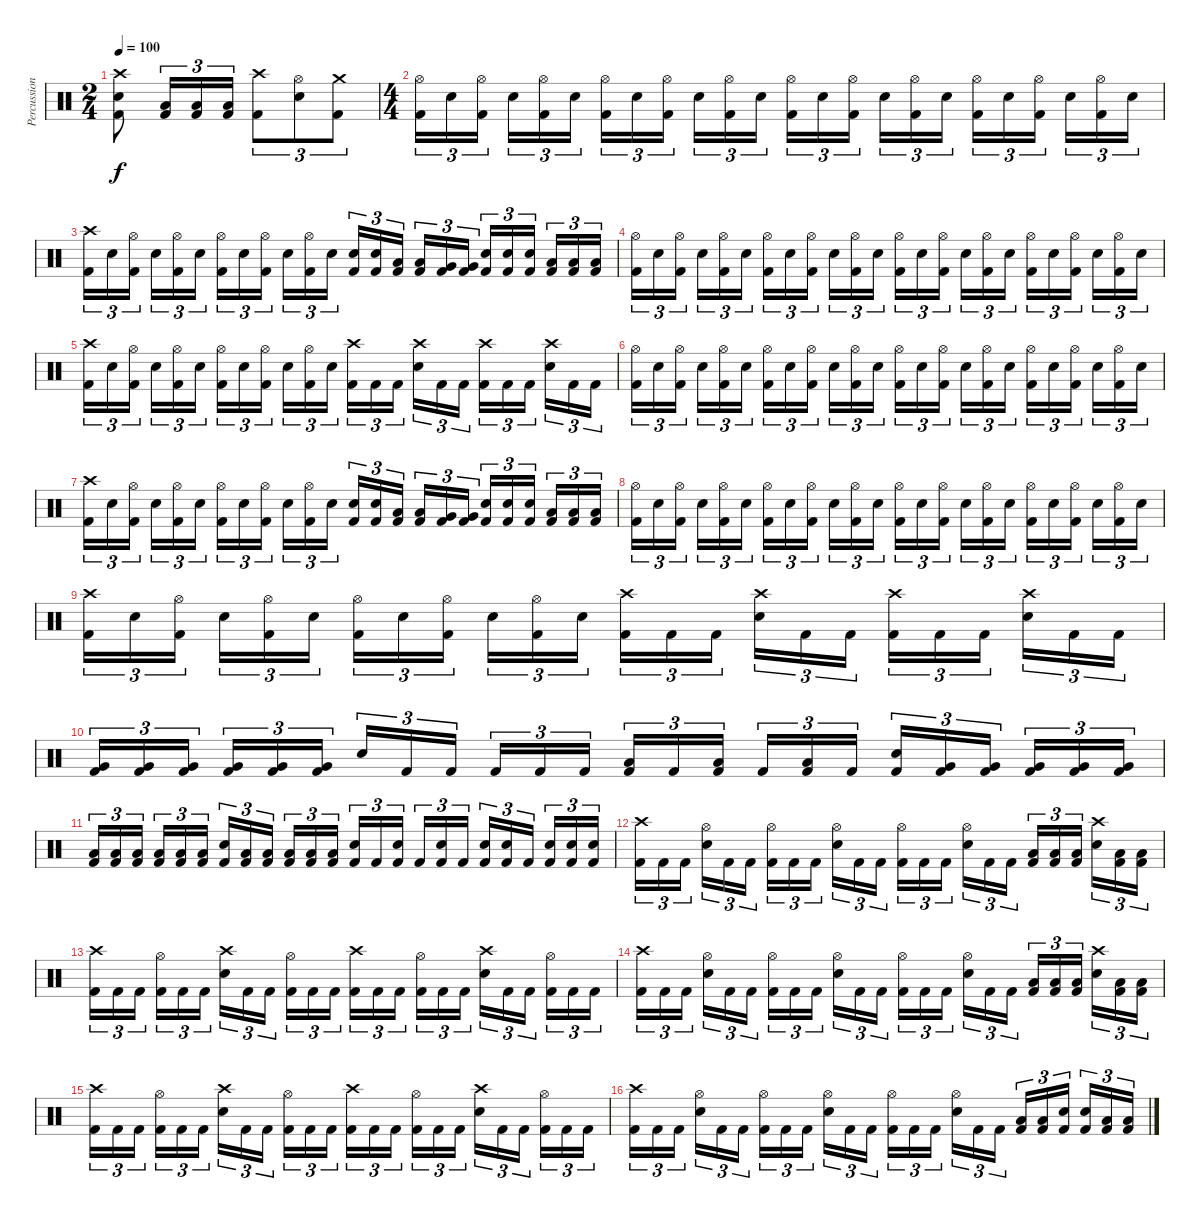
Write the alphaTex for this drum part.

\track ("Percussion" "Percussion") {instrument percussion}
\staff {score}
\articulation defaults
\ts (2 4)
\tempo 100
\clef neutral
\ks c
("Crash high (hit)" "Electric Snare (hit)" "Kick (hit) 2").8{dy f} ("Low Tom (hit)" "Kick (hit) 2").16{tu (3 2)} ("Low Tom (hit)" "Kick (hit) 2").16{tu (3 2)} ("Low Tom (hit)" "Kick (hit) 2").16{tu (3 2)} ("Crash high (hit)" "Kick (hit) 2").8{tu (3 2)} ("Hi-Hat (open)" "Electric Snare (hit)").8{tu (3 2)} ("Crash medium (hit)" "Kick (hit) 2").8{tu (3 2)} |
\ts (4 4)
("Hi-Hat (open)" "Kick (hit) 2").16{tu (3 2)} "Electric Snare (hit)".16{tu (3 2)} ("Hi-Hat (open)" "Kick (hit) 2").16{tu (3 2)} "Electric Snare (hit)".16{tu (3 2)} ("Hi-Hat (open)" "Kick (hit) 2").16{tu (3 2)} "Electric Snare (hit)".16{tu (3 2)} ("Hi-Hat (open)" "Kick (hit) 2").16{tu (3 2)} "Electric Snare (hit)".16{tu (3 2)} ("Hi-Hat (open)" "Kick (hit) 2").16{tu (3 2)} "Electric Snare (hit)".16{tu (3 2)} ("Hi-Hat (open)" "Kick (hit) 2").16{tu (3 2)} "Electric Snare (hit)".16{tu (3 2)} ("Hi-Hat (open)" "Kick (hit) 2").16{tu (3 2)} "Electric Snare (hit)".16{tu (3 2)} ("Hi-Hat (open)" "Kick (hit) 2").16{tu (3 2)} "Electric Snare (hit)".16{tu (3 2)} ("Hi-Hat (open)" "Kick (hit) 2").16{tu (3 2)} "Electric Snare (hit)".16{tu (3 2)} ("Hi-Hat (open)" "Kick (hit) 2").16{tu (3 2)} "Electric Snare (hit)".16{tu (3 2)} ("Hi-Hat (open)" "Kick (hit) 2").16{tu (3 2)} "Electric Snare (hit)".16{tu (3 2)} ("Hi-Hat (open)" "Kick (hit) 2").16{tu (3 2)} "Electric Snare (hit)".16{tu (3 2)} |
("Crash high (hit)" "Kick (hit) 2").16{tu (3 2)} "Electric Snare (hit)".16{tu (3 2)} ("Hi-Hat (open)" "Kick (hit) 2").16{tu (3 2)} "Electric Snare (hit)".16{tu (3 2)} ("Hi-Hat (open)" "Kick (hit) 2").16{tu (3 2)} "Electric Snare (hit)".16{tu (3 2)} ("Hi-Hat (open)" "Kick (hit) 2").16{tu (3 2)} "Electric Snare (hit)".16{tu (3 2)} ("Hi-Hat (open)" "Kick (hit) 2").16{tu (3 2)} "Electric Snare (hit)".16{tu (3 2)} ("Hi-Hat (open)" "Kick (hit) 2").16{tu (3 2)} "Electric Snare (hit)".16{tu (3 2)} ("Electric Snare (hit)" "Kick (hit) 2").16{tu (3 2)} ("Electric Snare (hit)" "Kick (hit) 2").16{tu (3 2)} ("Low Tom (hit)" "Kick (hit) 2").16{tu (3 2)} ("Low Tom (hit)" "Kick (hit) 2").16{tu (3 2)} ("Very Low Tom (hit)" "Kick (hit) 2").16{tu (3 2)} ("Very Low Tom (hit)" "Kick (hit) 2").16{tu (3 2)} ("Electric Snare (hit)" "Kick (hit) 2").16{tu (3 2)} ("Electric Snare (hit)" "Kick (hit) 2").16{tu (3 2)} ("Electric Snare (hit)" "Kick (hit) 2").16{tu (3 2)} ("Low Tom (hit)" "Kick (hit) 2").16{tu (3 2)} ("Low Tom (hit)" "Kick (hit) 2").16{tu (3 2)} ("Low Tom (hit)" "Kick (hit) 2").16{tu (3 2)} |
("Hi-Hat (open)" "Kick (hit) 2").16{tu (3 2)} "Electric Snare (hit)".16{tu (3 2)} ("Hi-Hat (open)" "Kick (hit) 2").16{tu (3 2)} "Electric Snare (hit)".16{tu (3 2)} ("Hi-Hat (open)" "Kick (hit) 2").16{tu (3 2)} "Electric Snare (hit)".16{tu (3 2)} ("Hi-Hat (open)" "Kick (hit) 2").16{tu (3 2)} "Electric Snare (hit)".16{tu (3 2)} ("Hi-Hat (open)" "Kick (hit) 2").16{tu (3 2)} "Electric Snare (hit)".16{tu (3 2)} ("Hi-Hat (open)" "Kick (hit) 2").16{tu (3 2)} "Electric Snare (hit)".16{tu (3 2)} ("Hi-Hat (open)" "Kick (hit) 2").16{tu (3 2)} "Electric Snare (hit)".16{tu (3 2)} ("Hi-Hat (open)" "Kick (hit) 2").16{tu (3 2)} "Electric Snare (hit)".16{tu (3 2)} ("Hi-Hat (open)" "Kick (hit) 2").16{tu (3 2)} "Electric Snare (hit)".16{tu (3 2)} ("Hi-Hat (open)" "Kick (hit) 2").16{tu (3 2)} "Electric Snare (hit)".16{tu (3 2)} ("Hi-Hat (open)" "Kick (hit) 2").16{tu (3 2)} "Electric Snare (hit)".16{tu (3 2)} ("Hi-Hat (open)" "Kick (hit) 2").16{tu (3 2)} "Electric Snare (hit)".16{tu (3 2)} |
("Crash high (hit)" "Kick (hit) 2").16{tu (3 2)} "Electric Snare (hit)".16{tu (3 2)} ("Hi-Hat (open)" "Kick (hit) 2").16{tu (3 2)} "Electric Snare (hit)".16{tu (3 2)} ("Hi-Hat (open)" "Kick (hit) 2").16{tu (3 2)} "Electric Snare (hit)".16{tu (3 2)} ("Hi-Hat (open)" "Kick (hit) 2").16{tu (3 2)} "Electric Snare (hit)".16{tu (3 2)} ("Hi-Hat (open)" "Kick (hit) 2").16{tu (3 2)} "Electric Snare (hit)".16{tu (3 2)} ("Hi-Hat (open)" "Kick (hit) 2").16{tu (3 2)} "Electric Snare (hit)".16{tu (3 2)} ("Crash high (hit)" "Kick (hit) 2").16{tu (3 2)} "Kick (hit) 2".16{tu (3 2)} "Kick (hit) 2".16{tu (3 2)} ("Crash high (hit)" "Electric Snare (hit)").16{tu (3 2)} "Kick (hit) 2".16{tu (3 2)} "Kick (hit) 2".16{tu (3 2)} ("Crash high (hit)" "Kick (hit) 2").16{tu (3 2)} "Kick (hit) 2".16{tu (3 2)} "Kick (hit) 2".16{tu (3 2)} ("Crash high (hit)" "Electric Snare (hit)").16{tu (3 2)} "Kick (hit) 2".16{tu (3 2)} "Kick (hit) 2".16{tu (3 2)} |
("Hi-Hat (open)" "Kick (hit) 2").16{tu (3 2)} "Electric Snare (hit)".16{tu (3 2)} ("Hi-Hat (open)" "Kick (hit) 2").16{tu (3 2)} "Electric Snare (hit)".16{tu (3 2)} ("Hi-Hat (open)" "Kick (hit) 2").16{tu (3 2)} "Electric Snare (hit)".16{tu (3 2)} ("Hi-Hat (open)" "Kick (hit) 2").16{tu (3 2)} "Electric Snare (hit)".16{tu (3 2)} ("Hi-Hat (open)" "Kick (hit) 2").16{tu (3 2)} "Electric Snare (hit)".16{tu (3 2)} ("Hi-Hat (open)" "Kick (hit) 2").16{tu (3 2)} "Electric Snare (hit)".16{tu (3 2)} ("Hi-Hat (open)" "Kick (hit) 2").16{tu (3 2)} "Electric Snare (hit)".16{tu (3 2)} ("Hi-Hat (open)" "Kick (hit) 2").16{tu (3 2)} "Electric Snare (hit)".16{tu (3 2)} ("Hi-Hat (open)" "Kick (hit) 2").16{tu (3 2)} "Electric Snare (hit)".16{tu (3 2)} ("Hi-Hat (open)" "Kick (hit) 2").16{tu (3 2)} "Electric Snare (hit)".16{tu (3 2)} ("Hi-Hat (open)" "Kick (hit) 2").16{tu (3 2)} "Electric Snare (hit)".16{tu (3 2)} ("Hi-Hat (open)" "Kick (hit) 2").16{tu (3 2)} "Electric Snare (hit)".16{tu (3 2)} |
("Crash high (hit)" "Kick (hit) 2").16{tu (3 2)} "Electric Snare (hit)".16{tu (3 2)} ("Hi-Hat (open)" "Kick (hit) 2").16{tu (3 2)} "Electric Snare (hit)".16{tu (3 2)} ("Hi-Hat (open)" "Kick (hit) 2").16{tu (3 2)} "Electric Snare (hit)".16{tu (3 2)} ("Hi-Hat (open)" "Kick (hit) 2").16{tu (3 2)} "Electric Snare (hit)".16{tu (3 2)} ("Hi-Hat (open)" "Kick (hit) 2").16{tu (3 2)} "Electric Snare (hit)".16{tu (3 2)} ("Hi-Hat (open)" "Kick (hit) 2").16{tu (3 2)} "Electric Snare (hit)".16{tu (3 2)} ("Electric Snare (hit)" "Kick (hit) 2").16{tu (3 2)} ("Electric Snare (hit)" "Kick (hit) 2").16{tu (3 2)} ("Low Tom (hit)" "Kick (hit) 2").16{tu (3 2)} ("Low Tom (hit)" "Kick (hit) 2").16{tu (3 2)} ("Very Low Tom (hit)" "Kick (hit) 2").16{tu (3 2)} ("Very Low Tom (hit)" "Kick (hit) 2").16{tu (3 2)} ("Electric Snare (hit)" "Kick (hit) 2").16{tu (3 2)} ("Electric Snare (hit)" "Kick (hit) 2").16{tu (3 2)} ("Electric Snare (hit)" "Kick (hit) 2").16{tu (3 2)} ("Low Tom (hit)" "Kick (hit) 2").16{tu (3 2)} ("Low Tom (hit)" "Kick (hit) 2").16{tu (3 2)} ("Low Tom (hit)" "Kick (hit) 2").16{tu (3 2)} |
("Hi-Hat (open)" "Kick (hit) 2").16{tu (3 2)} "Electric Snare (hit)".16{tu (3 2)} ("Hi-Hat (open)" "Kick (hit) 2").16{tu (3 2)} "Electric Snare (hit)".16{tu (3 2)} ("Hi-Hat (open)" "Kick (hit) 2").16{tu (3 2)} "Electric Snare (hit)".16{tu (3 2)} ("Hi-Hat (open)" "Kick (hit) 2").16{tu (3 2)} "Electric Snare (hit)".16{tu (3 2)} ("Hi-Hat (open)" "Kick (hit) 2").16{tu (3 2)} "Electric Snare (hit)".16{tu (3 2)} ("Hi-Hat (open)" "Kick (hit) 2").16{tu (3 2)} "Electric Snare (hit)".16{tu (3 2)} ("Hi-Hat (open)" "Kick (hit) 2").16{tu (3 2)} "Electric Snare (hit)".16{tu (3 2)} ("Hi-Hat (open)" "Kick (hit) 2").16{tu (3 2)} "Electric Snare (hit)".16{tu (3 2)} ("Hi-Hat (open)" "Kick (hit) 2").16{tu (3 2)} "Electric Snare (hit)".16{tu (3 2)} ("Hi-Hat (open)" "Kick (hit) 2").16{tu (3 2)} "Electric Snare (hit)".16{tu (3 2)} ("Hi-Hat (open)" "Kick (hit) 2").16{tu (3 2)} "Electric Snare (hit)".16{tu (3 2)} ("Hi-Hat (open)" "Kick (hit) 2").16{tu (3 2)} "Electric Snare (hit)".16{tu (3 2)} |
("Crash high (hit)" "Kick (hit) 2").16{tu (3 2)} "Electric Snare (hit)".16{tu (3 2)} ("Hi-Hat (open)" "Kick (hit) 2").16{tu (3 2)} "Electric Snare (hit)".16{tu (3 2)} ("Hi-Hat (open)" "Kick (hit) 2").16{tu (3 2)} "Electric Snare (hit)".16{tu (3 2)} ("Hi-Hat (open)" "Kick (hit) 2").16{tu (3 2)} "Electric Snare (hit)".16{tu (3 2)} ("Hi-Hat (open)" "Kick (hit) 2").16{tu (3 2)} "Electric Snare (hit)".16{tu (3 2)} ("Hi-Hat (open)" "Kick (hit) 2").16{tu (3 2)} "Electric Snare (hit)".16{tu (3 2)} ("Crash high (hit)" "Kick (hit) 2").16{tu (3 2)} "Kick (hit) 2".16{tu (3 2)} "Kick (hit) 2".16{tu (3 2)} ("Crash high (hit)" "Electric Snare (hit)").16{tu (3 2)} "Kick (hit) 2".16{tu (3 2)} "Kick (hit) 2".16{tu (3 2)} ("Crash high (hit)" "Kick (hit) 2").16{tu (3 2)} "Kick (hit) 2".16{tu (3 2)} "Kick (hit) 2".16{tu (3 2)} ("Crash high (hit)" "Electric Snare (hit)").16{tu (3 2)} "Kick (hit) 2".16{tu (3 2)} "Kick (hit) 2".16{tu (3 2)} |
("Very Low Tom (hit)" "Kick (hit) 2").16{tu (3 2)} ("Very Low Tom (hit)" "Kick (hit) 2").16{tu (3 2)} ("Very Low Tom (hit)" "Kick (hit) 2").16{tu (3 2)} ("Very Low Tom (hit)" "Kick (hit) 2").16{tu (3 2)} ("Very Low Tom (hit)" "Kick (hit) 2").16{tu (3 2)} ("Very Low Tom (hit)" "Kick (hit) 2").16{tu (3 2)} "Electric Snare (hit)".16{tu (3 2)} "Kick (hit) 2".16{tu (3 2)} "Kick (hit) 2".16{tu (3 2)} "Kick (hit) 2".16{tu (3 2)} "Kick (hit) 2".16{tu (3 2)} "Kick (hit) 2".16{tu (3 2)} ("Low Tom (hit)" "Kick (hit) 2").16{tu (3 2)} "Kick (hit) 2".16{tu (3 2)} ("Low Tom (hit)" "Kick (hit) 2").16{tu (3 2)} "Kick (hit) 2".16{tu (3 2)} ("Low Tom (hit)" "Kick (hit) 2").16{tu (3 2)} "Kick (hit) 2".16{tu (3 2)} ("Electric Snare (hit)" "Kick (hit) 2").16{tu (3 2)} ("Very Low Tom (hit)" "Kick (hit) 2").16{tu (3 2)} ("Very Low Tom (hit)" "Kick (hit) 2").16{tu (3 2)} ("Very Low Tom (hit)" "Kick (hit) 2").16{tu (3 2)} ("Very Low Tom (hit)" "Kick (hit) 2").16{tu (3 2)} ("Very Low Tom (hit)" "Kick (hit) 2").16{tu (3 2)} |
("Low Tom (hit)" "Kick (hit) 2").16{tu (3 2)} ("Low Tom (hit)" "Kick (hit) 2").16{tu (3 2)} ("Low Tom (hit)" "Kick (hit) 2").16{tu (3 2)} ("Low Tom (hit)" "Kick (hit) 2").16{tu (3 2)} ("Low Tom (hit)" "Kick (hit) 2").16{tu (3 2)} ("Low Tom (hit)" "Kick (hit) 2").16{tu (3 2)} ("Electric Snare (hit)" "Kick (hit) 2").16{tu (3 2)} ("Low Tom (hit)" "Kick (hit) 2").16{tu (3 2)} ("Low Tom (hit)" "Kick (hit) 2").16{tu (3 2)} ("Low Tom (hit)" "Kick (hit) 2").16{tu (3 2)} ("Low Tom (hit)" "Kick (hit) 2").16{tu (3 2)} ("Low Tom (hit)" "Kick (hit) 2").16{tu (3 2)} ("Electric Snare (hit)" "Kick (hit) 2").16{tu (3 2)} "Kick (hit) 2".16{tu (3 2)} ("Electric Snare (hit)" "Kick (hit) 2").16{tu (3 2)} "Kick (hit) 2".16{tu (3 2)} ("Electric Snare (hit)" "Kick (hit) 2").16{tu (3 2)} "Kick (hit) 2".16{tu (3 2)} ("Electric Snare (hit)" "Kick (hit) 2").16{tu (3 2)} ("Electric Snare (hit)" "Kick (hit) 2").16{tu (3 2)} "Kick (hit) 2".16{tu (3 2)} ("Electric Snare (hit)" "Kick (hit) 2").16{tu (3 2)} ("Electric Snare (hit)" "Kick (hit) 2").16{tu (3 2)} ("Electric Snare (hit)" "Kick (hit) 2").16{tu (3 2)} |
("Crash high (hit)" "Kick (hit) 2").16{tu (3 2)} "Kick (hit) 2".16{tu (3 2)} "Kick (hit) 2".16{tu (3 2)} ("Hi-Hat (open)" "Electric Snare (hit)").16{tu (3 2)} "Kick (hit) 2".16{tu (3 2)} "Kick (hit) 2".16{tu (3 2)} ("Hi-Hat (open)" "Kick (hit) 2").16{tu (3 2)} "Kick (hit) 2".16{tu (3 2)} "Kick (hit) 2".16{tu (3 2)} ("Hi-Hat (open)" "Electric Snare (hit)").16{tu (3 2)} "Kick (hit) 2".16{tu (3 2)} "Kick (hit) 2".16{tu (3 2)} ("Hi-Hat (open)" "Kick (hit) 2").16{tu (3 2)} "Kick (hit) 2".16{tu (3 2)} "Kick (hit) 2".16{tu (3 2)} ("Hi-Hat (open)" "Electric Snare (hit)").16{tu (3 2)} "Kick (hit) 2".16{tu (3 2)} "Kick (hit) 2".16{tu (3 2)} ("Low Tom (hit)" "Kick (hit) 2").16{tu (3 2)} ("Low Tom (hit)" "Kick (hit) 2").16{tu (3 2)} ("Low Tom (hit)" "Kick (hit) 2").16{tu (3 2)} ("Crash high (hit)" "Electric Snare (hit)").16{tu (3 2)} ("Low Tom (hit)" "Kick (hit) 2").16{tu (3 2)} ("Low Tom (hit)" "Kick (hit) 2").16{tu (3 2)} |
("Crash high (hit)" "Kick (hit) 2").16{tu (3 2)} "Kick (hit) 2".16{tu (3 2)} "Kick (hit) 2".16{tu (3 2)} ("Hi-Hat (open)" "Kick (hit) 2").16{tu (3 2)} "Kick (hit) 2".16{tu (3 2)} "Kick (hit) 2".16{tu (3 2)} ("Crash high (hit)" "Electric Snare (hit)").16{tu (3 2)} "Kick (hit) 2".16{tu (3 2)} "Kick (hit) 2".16{tu (3 2)} ("Hi-Hat (open)" "Kick (hit) 2").16{tu (3 2)} "Kick (hit) 2".16{tu (3 2)} "Kick (hit) 2".16{tu (3 2)} ("Crash high (hit)" "Kick (hit) 2").16{tu (3 2)} "Kick (hit) 2".16{tu (3 2)} "Kick (hit) 2".16{tu (3 2)} ("Hi-Hat (open)" "Kick (hit) 2").16{tu (3 2)} "Kick (hit) 2".16{tu (3 2)} "Kick (hit) 2".16{tu (3 2)} ("Crash high (hit)" "Electric Snare (hit)").16{tu (3 2)} "Kick (hit) 2".16{tu (3 2)} "Kick (hit) 2".16{tu (3 2)} ("Hi-Hat (open)" "Kick (hit) 2").16{tu (3 2)} "Kick (hit) 2".16{tu (3 2)} "Kick (hit) 2".16{tu (3 2)} |
("Crash high (hit)" "Kick (hit) 2").16{tu (3 2)} "Kick (hit) 2".16{tu (3 2)} "Kick (hit) 2".16{tu (3 2)} ("Hi-Hat (open)" "Electric Snare (hit)").16{tu (3 2)} "Kick (hit) 2".16{tu (3 2)} "Kick (hit) 2".16{tu (3 2)} ("Hi-Hat (open)" "Kick (hit) 2").16{tu (3 2)} "Kick (hit) 2".16{tu (3 2)} "Kick (hit) 2".16{tu (3 2)} ("Hi-Hat (open)" "Electric Snare (hit)").16{tu (3 2)} "Kick (hit) 2".16{tu (3 2)} "Kick (hit) 2".16{tu (3 2)} ("Hi-Hat (open)" "Kick (hit) 2").16{tu (3 2)} "Kick (hit) 2".16{tu (3 2)} "Kick (hit) 2".16{tu (3 2)} ("Hi-Hat (open)" "Electric Snare (hit)").16{tu (3 2)} "Kick (hit) 2".16{tu (3 2)} "Kick (hit) 2".16{tu (3 2)} ("Low Tom (hit)" "Kick (hit) 2").16{tu (3 2)} ("Low Tom (hit)" "Kick (hit) 2").16{tu (3 2)} ("Low Tom (hit)" "Kick (hit) 2").16{tu (3 2)} ("Crash high (hit)" "Electric Snare (hit)").16{tu (3 2)} ("Low Tom (hit)" "Kick (hit) 2").16{tu (3 2)} ("Low Tom (hit)" "Kick (hit) 2").16{tu (3 2)} |
("Crash high (hit)" "Kick (hit) 2").16{tu (3 2)} "Kick (hit) 2".16{tu (3 2)} "Kick (hit) 2".16{tu (3 2)} ("Hi-Hat (open)" "Kick (hit) 2").16{tu (3 2)} "Kick (hit) 2".16{tu (3 2)} "Kick (hit) 2".16{tu (3 2)} ("Crash high (hit)" "Electric Snare (hit)").16{tu (3 2)} "Kick (hit) 2".16{tu (3 2)} "Kick (hit) 2".16{tu (3 2)} ("Hi-Hat (open)" "Kick (hit) 2").16{tu (3 2)} "Kick (hit) 2".16{tu (3 2)} "Kick (hit) 2".16{tu (3 2)} ("Crash high (hit)" "Kick (hit) 2").16{tu (3 2)} "Kick (hit) 2".16{tu (3 2)} "Kick (hit) 2".16{tu (3 2)} ("Hi-Hat (open)" "Kick (hit) 2").16{tu (3 2)} "Kick (hit) 2".16{tu (3 2)} "Kick (hit) 2".16{tu (3 2)} ("Crash high (hit)" "Electric Snare (hit)").16{tu (3 2)} "Kick (hit) 2".16{tu (3 2)} "Kick (hit) 2".16{tu (3 2)} ("Hi-Hat (open)" "Kick (hit) 2").16{tu (3 2)} "Kick (hit) 2".16{tu (3 2)} "Kick (hit) 2".16{tu (3 2)} |
("Crash high (hit)" "Kick (hit) 2").16{tu (3 2)} "Kick (hit) 2".16{tu (3 2)} "Kick (hit) 2".16{tu (3 2)} ("Hi-Hat (open)" "Electric Snare (hit)").16{tu (3 2)} "Kick (hit) 2".16{tu (3 2)} "Kick (hit) 2".16{tu (3 2)} ("Hi-Hat (open)" "Kick (hit) 2").16{tu (3 2)} "Kick (hit) 2".16{tu (3 2)} "Kick (hit) 2".16{tu (3 2)} ("Hi-Hat (open)" "Electric Snare (hit)").16{tu (3 2)} "Kick (hit) 2".16{tu (3 2)} "Kick (hit) 2".16{tu (3 2)} ("Hi-Hat (open)" "Kick (hit) 2").16{tu (3 2)} "Kick (hit) 2".16{tu (3 2)} "Kick (hit) 2".16{tu (3 2)} ("Hi-Hat (open)" "Electric Snare (hit)").16{tu (3 2)} "Kick (hit) 2".16{tu (3 2)} "Kick (hit) 2".16{tu (3 2)} ("Low Tom (hit)" "Kick (hit) 2").16{tu (3 2)} ("Low Tom (hit)" "Kick (hit) 2").16{tu (3 2)} ("Electric Snare (hit)" "Kick (hit) 2").16{tu (3 2)} ("Electric Snare (hit)" "Kick (hit) 2").16{tu (3 2)} ("Low Tom (hit)" "Kick (hit) 2").16{tu (3 2)} ("Low Tom (hit)" "Kick (hit) 2").16{tu (3 2)}
